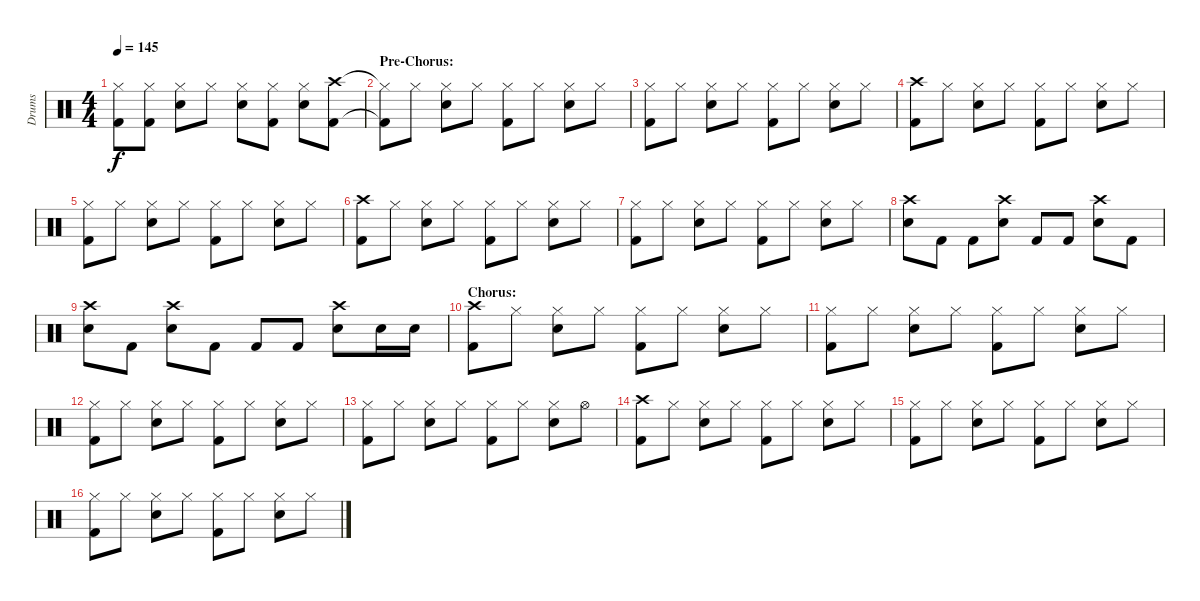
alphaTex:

\track ("Drums" "Drums") {instrument percussion}
\staff {score}
\articulation defaults
\ts (4 4)
\tempo 145
\clef neutral
\ks c
("Hi-Hat (closed)"{t} "Kick (hit) 2"{t}).8{dy f} ("Hi-Hat (closed)" "Kick (hit) 2").8 ("Hi-Hat (closed)" "Electric Snare (hit)").8 "Hi-Hat (closed)".8 ("Hi-Hat (closed)" "Electric Snare (hit)").8 ("Hi-Hat (closed)" "Kick (hit) 2").8 ("Hi-Hat (closed)" "Electric Snare (hit)").8 ("Crash high (hit)" "Kick (hit) 2").8 |
\section ("" "Pre-Chorus:")
("Hi-Hat (closed)"{t} "Kick (hit) 2"{t}).8 "Hi-Hat (closed)".8 ("Hi-Hat (closed)" "Electric Snare (hit)").8 "Hi-Hat (closed)".8 ("Hi-Hat (closed)" "Kick (hit) 2").8 "Hi-Hat (closed)".8 ("Hi-Hat (closed)" "Electric Snare (hit)").8 "Hi-Hat (closed)".8 |
("Hi-Hat (closed)" "Kick (hit) 2").8 "Hi-Hat (closed)".8 ("Hi-Hat (closed)" "Electric Snare (hit)").8 "Hi-Hat (closed)".8 ("Hi-Hat (closed)" "Kick (hit) 2").8 "Hi-Hat (closed)".8 ("Hi-Hat (closed)" "Electric Snare (hit)").8 "Hi-Hat (closed)".8 |
("Crash high (hit)" "Kick (hit) 2").8 "Hi-Hat (closed)".8 ("Hi-Hat (closed)" "Electric Snare (hit)").8 "Hi-Hat (closed)".8 ("Hi-Hat (closed)" "Kick (hit) 2").8 "Hi-Hat (closed)".8 ("Hi-Hat (closed)" "Electric Snare (hit)").8 "Hi-Hat (closed)".8 |
("Hi-Hat (closed)" "Kick (hit) 2").8 "Hi-Hat (closed)".8 ("Hi-Hat (closed)" "Electric Snare (hit)").8 "Hi-Hat (closed)".8 ("Hi-Hat (closed)" "Kick (hit) 2").8 "Hi-Hat (closed)".8 ("Hi-Hat (closed)" "Electric Snare (hit)").8 "Hi-Hat (closed)".8 |
("Crash high (hit)" "Kick (hit) 2").8 "Hi-Hat (closed)".8 ("Hi-Hat (closed)" "Electric Snare (hit)").8 "Hi-Hat (closed)".8 ("Hi-Hat (closed)" "Kick (hit) 2").8 "Hi-Hat (closed)".8 ("Hi-Hat (closed)" "Electric Snare (hit)").8 "Hi-Hat (closed)".8 |
("Hi-Hat (closed)" "Kick (hit) 2").8 "Hi-Hat (closed)".8 ("Hi-Hat (closed)" "Electric Snare (hit)").8 "Hi-Hat (closed)".8 ("Hi-Hat (closed)" "Kick (hit) 2").8 "Hi-Hat (closed)".8 ("Hi-Hat (closed)" "Electric Snare (hit)").8 "Hi-Hat (closed)".8 |
("Crash high (hit)" "Electric Snare (hit)").8 "Kick (hit) 2".8 "Kick (hit) 2".8 ("Crash high (hit)" "Electric Snare (hit)").8 "Kick (hit) 2".8 "Kick (hit) 2".8 ("Crash high (hit)" "Electric Snare (hit)").8 "Kick (hit) 2".8 |
("Crash high (hit)" "Electric Snare (hit)").8 "Kick (hit) 2".8 ("Crash high (hit)" "Electric Snare (hit)").8 "Kick (hit) 2".8 "Kick (hit) 2".8 "Kick (hit) 2".8 ("Crash high (hit)" "Electric Snare (hit)").8 "Electric Snare (hit)".16 "Electric Snare (hit)".16 |
\section ("" "Chorus:")
("Crash high (hit)" "Kick (hit) 2").8 "Hi-Hat (closed)".8 ("Hi-Hat (closed)" "Electric Snare (hit)").8 "Hi-Hat (closed)".8 ("Hi-Hat (closed)" "Kick (hit) 2").8 "Hi-Hat (closed)".8 ("Hi-Hat (closed)" "Electric Snare (hit)").8 "Hi-Hat (closed)".8 |
("Hi-Hat (closed)" "Kick (hit) 2").8 "Hi-Hat (closed)".8 ("Hi-Hat (closed)" "Electric Snare (hit)").8 "Hi-Hat (closed)".8 ("Hi-Hat (closed)" "Kick (hit) 2").8 "Hi-Hat (closed)".8 ("Hi-Hat (closed)" "Electric Snare (hit)").8 "Hi-Hat (closed)".8 |
("Hi-Hat (closed)" "Kick (hit) 2").8 "Hi-Hat (closed)".8 ("Hi-Hat (closed)" "Electric Snare (hit)").8 "Hi-Hat (closed)".8 ("Hi-Hat (closed)" "Kick (hit) 2").8 "Hi-Hat (closed)".8 ("Hi-Hat (closed)" "Electric Snare (hit)").8 "Hi-Hat (closed)".8 |
("Hi-Hat (closed)" "Kick (hit) 2").8 "Hi-Hat (closed)".8 ("Hi-Hat (closed)" "Electric Snare (hit)").8 "Hi-Hat (closed)".8 ("Hi-Hat (closed)" "Kick (hit) 2").8 "Hi-Hat (closed)".8 ("Hi-Hat (closed)" "Electric Snare (hit)").8 "Hi-Hat (open)".8 |
("Crash high (hit)" "Kick (hit) 2").8 "Hi-Hat (closed)".8 ("Hi-Hat (closed)" "Electric Snare (hit)").8 "Hi-Hat (closed)".8 ("Hi-Hat (closed)" "Kick (hit) 2").8 "Hi-Hat (closed)".8 ("Hi-Hat (closed)" "Electric Snare (hit)").8 "Hi-Hat (closed)".8 |
("Hi-Hat (closed)" "Kick (hit) 2").8 "Hi-Hat (closed)".8 ("Hi-Hat (closed)" "Electric Snare (hit)").8 "Hi-Hat (closed)".8 ("Hi-Hat (closed)" "Kick (hit) 2").8 "Hi-Hat (closed)".8 ("Hi-Hat (closed)" "Electric Snare (hit)").8 "Hi-Hat (closed)".8 |
("Hi-Hat (closed)" "Kick (hit) 2").8 "Hi-Hat (closed)".8 ("Hi-Hat (closed)" "Electric Snare (hit)").8 "Hi-Hat (closed)".8 ("Hi-Hat (closed)" "Kick (hit) 2").8 "Hi-Hat (closed)".8 ("Hi-Hat (closed)" "Electric Snare (hit)").8 "Hi-Hat (closed)".8
